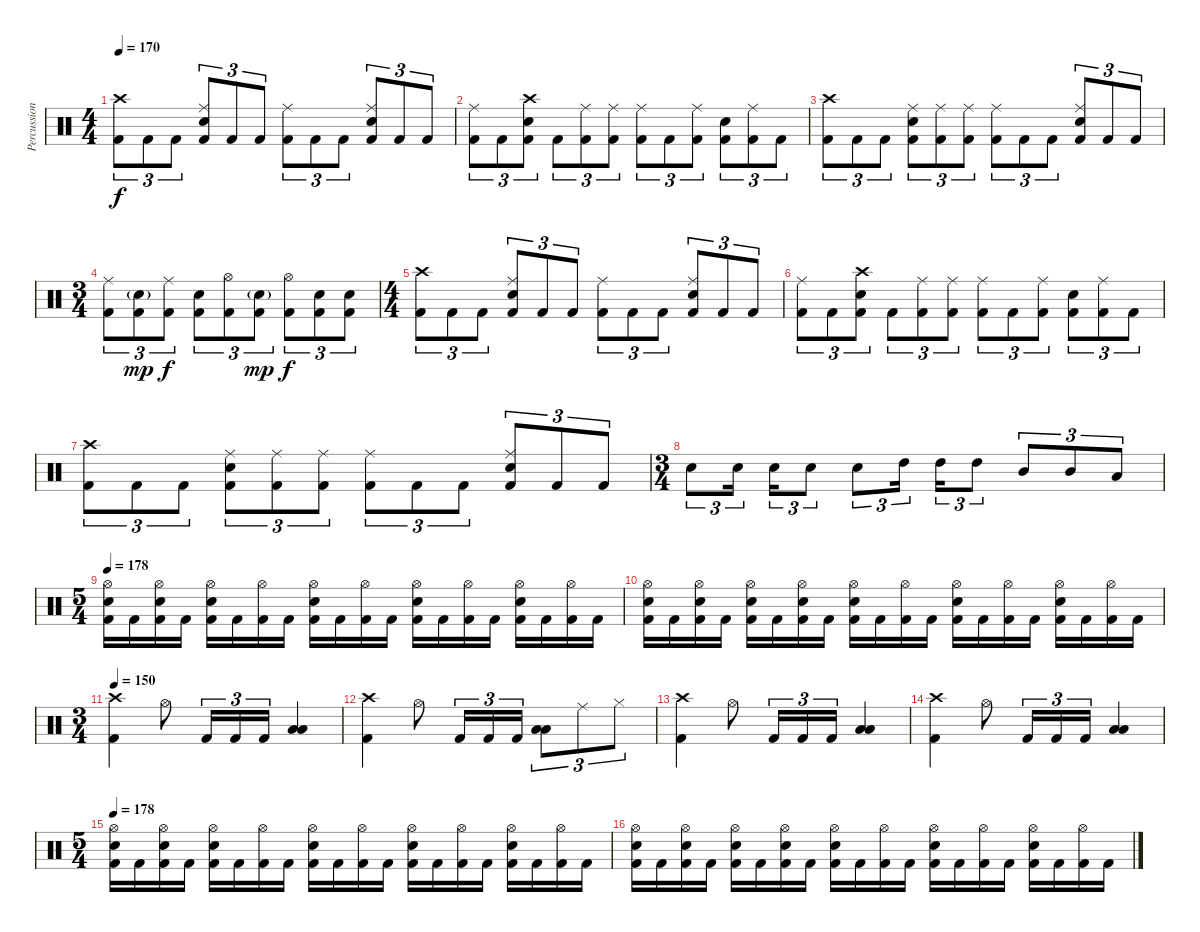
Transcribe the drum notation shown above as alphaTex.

\track ("Percussion" "Percussion") {instrument percussion}
\staff {score}
\articulation defaults
\ts (4 4)
\tempo 170
\clef neutral
\ks c
("Crash high (hit)" "Kick (hit) 2").8{tu (3 2) dy f} "Kick (hit) 2".8{tu (3 2)} "Kick (hit) 2".8{tu (3 2)} ("Ride (middle)" "Electric Snare (hit)" "Kick (hit) 2").8{tu (3 2)} "Kick (hit) 2".8{tu (3 2)} "Kick (hit) 2".8{tu (3 2)} ("Ride (middle)" "Kick (hit) 2").8{tu (3 2)} "Kick (hit) 2".8{tu (3 2)} "Kick (hit) 2".8{tu (3 2)} ("Ride (middle)" "Electric Snare (hit)" "Kick (hit) 2").8{tu (3 2)} "Kick (hit) 2".8{tu (3 2)} "Kick (hit) 2".8{tu (3 2)} |
("Ride (middle)" "Kick (hit) 2").8{tu (3 2)} "Kick (hit) 2".8{tu (3 2)} ("Crash high (hit)" "Electric Snare (hit)" "Kick (hit) 2").8{tu (3 2)} "Kick (hit) 2".8{tu (3 2)} ("Ride (middle)" "Kick (hit) 2").8{tu (3 2)} ("Ride (middle)" "Kick (hit) 2").8{tu (3 2)} ("Ride (middle)" "Kick (hit) 2").8{tu (3 2)} "Kick (hit) 2".8{tu (3 2)} ("Ride (middle)" "Kick (hit) 2").8{tu (3 2)} ("Electric Snare (hit)" "Kick (hit) 2").8{tu (3 2)} ("Ride (middle)" "Kick (hit) 2").8{tu (3 2)} "Kick (hit) 2".8{tu (3 2)} |
("Crash high (hit)" "Kick (hit) 2").8{tu (3 2)} "Kick (hit) 2".8{tu (3 2)} "Kick (hit) 2".8{tu (3 2)} ("Ride (middle)" "Electric Snare (hit)" "Kick (hit) 2").8{tu (3 2)} ("Ride (middle)" "Kick (hit) 2").8{tu (3 2)} ("Ride (middle)" "Kick (hit) 2").8{tu (3 2)} ("Ride (middle)" "Kick (hit) 2").8{tu (3 2)} "Kick (hit) 2".8{tu (3 2)} "Kick (hit) 2".8{tu (3 2)} ("Ride (middle)" "Electric Snare (hit)" "Kick (hit) 2").8{tu (3 2)} "Kick (hit) 2".8{tu (3 2)} "Kick (hit) 2".8{tu (3 2)} |
\ts (3 4)
("Ride (middle)" "Kick (hit) 2").8{tu (3 2)} ("Electric Snare (hit)"{g} "Kick (hit) 2").8{tu (3 2) dy mp} ("Ride (middle)" "Kick (hit) 2").8{tu (3 2) dy f} ("Electric Snare (hit)" "Kick (hit) 2").8{tu (3 2)} ("Hi-Hat (open)" "Kick (hit) 2").8{tu (3 2)} ("Electric Snare (hit)"{g} "Kick (hit) 2").8{tu (3 2) dy mp} ("Hi-Hat (open)" "Kick (hit) 2").8{tu (3 2) dy f} ("Electric Snare (hit)" "Kick (hit) 2").8{tu (3 2)} ("Electric Snare (hit)" "Kick (hit) 2").8{tu (3 2)} |
\ts (4 4)
("Crash high (hit)" "Kick (hit) 2").8{tu (3 2)} "Kick (hit) 2".8{tu (3 2)} "Kick (hit) 2".8{tu (3 2)} ("Ride (middle)" "Electric Snare (hit)" "Kick (hit) 2").8{tu (3 2)} "Kick (hit) 2".8{tu (3 2)} "Kick (hit) 2".8{tu (3 2)} ("Ride (middle)" "Kick (hit) 2").8{tu (3 2)} "Kick (hit) 2".8{tu (3 2)} "Kick (hit) 2".8{tu (3 2)} ("Ride (middle)" "Electric Snare (hit)" "Kick (hit) 2").8{tu (3 2)} "Kick (hit) 2".8{tu (3 2)} "Kick (hit) 2".8{tu (3 2)} |
("Ride (middle)" "Kick (hit) 2").8{tu (3 2)} "Kick (hit) 2".8{tu (3 2)} ("Crash high (hit)" "Electric Snare (hit)" "Kick (hit) 2").8{tu (3 2)} "Kick (hit) 2".8{tu (3 2)} ("Ride (middle)" "Kick (hit) 2").8{tu (3 2)} ("Ride (middle)" "Kick (hit) 2").8{tu (3 2)} ("Ride (middle)" "Kick (hit) 2").8{tu (3 2)} "Kick (hit) 2".8{tu (3 2)} ("Ride (middle)" "Kick (hit) 2").8{tu (3 2)} ("Electric Snare (hit)" "Kick (hit) 2").8{tu (3 2)} ("Ride (middle)" "Kick (hit) 2").8{tu (3 2)} "Kick (hit) 2".8{tu (3 2)} |
("Crash high (hit)" "Kick (hit) 2").8{tu (3 2)} "Kick (hit) 2".8{tu (3 2)} "Kick (hit) 2".8{tu (3 2)} ("Ride (middle)" "Electric Snare (hit)" "Kick (hit) 2").8{tu (3 2)} ("Ride (middle)" "Kick (hit) 2").8{tu (3 2)} ("Ride (middle)" "Kick (hit) 2").8{tu (3 2)} ("Ride (middle)" "Kick (hit) 2").8{tu (3 2)} "Kick (hit) 2".8{tu (3 2)} "Kick (hit) 2".8{tu (3 2)} ("Ride (middle)" "Electric Snare (hit)" "Kick (hit) 2").8{tu (3 2)} "Kick (hit) 2".8{tu (3 2)} "Kick (hit) 2".8{tu (3 2)} |
\ts (3 4)
"Electric Snare (hit)".8{tu (3 2)} "Electric Snare (hit)".16{tu (3 2)} "Electric Snare (hit)".16{tu (3 2)} "Electric Snare (hit)".8{tu (3 2)} "Electric Snare (hit)".8{tu (3 2)} "High Tom (hit)".16{tu (3 2)} "High Tom (hit)".16{tu (3 2)} "High Tom (hit)".8{tu (3 2)} "Mid Tom (hit)".8{tu (3 2)} "Mid Tom (hit)".8{tu (3 2)} "Low Tom (hit)".8{tu (3 2)} |
\ts (5 4)
\tempo 178
("Hi-Hat (open)" "Electric Snare (hit)" "Kick (hit) 2").16 "Kick (hit) 2".16 ("Hi-Hat (open)" "Electric Snare (hit)" "Kick (hit) 2").16 "Kick (hit) 2".16 ("Hi-Hat (open)" "Electric Snare (hit)" "Kick (hit) 2").16 "Kick (hit) 2".16 ("Hi-Hat (open)" "Kick (hit) 2").16 "Kick (hit) 2".16 ("Hi-Hat (open)" "Electric Snare (hit)" "Kick (hit) 2").16 "Kick (hit) 2".16 ("Hi-Hat (open)" "Kick (hit) 2").16 "Kick (hit) 2".16 ("Hi-Hat (open)" "Electric Snare (hit)" "Kick (hit) 2").16 "Kick (hit) 2".16 ("Hi-Hat (open)" "Kick (hit) 2").16 "Kick (hit) 2".16 ("Hi-Hat (open)" "Electric Snare (hit)" "Kick (hit) 2").16 "Kick (hit) 2".16 ("Hi-Hat (open)" "Kick (hit) 2").16 "Kick (hit) 2".16 |
("Hi-Hat (open)" "Electric Snare (hit)" "Kick (hit) 2").16 "Kick (hit) 2".16 ("Hi-Hat (open)" "Electric Snare (hit)" "Kick (hit) 2").16 "Kick (hit) 2".16 ("Hi-Hat (open)" "Electric Snare (hit)" "Kick (hit) 2").16 "Kick (hit) 2".16 ("Hi-Hat (open)" "Electric Snare (hit)" "Kick (hit) 2").16 "Kick (hit) 2".16 ("Hi-Hat (open)" "Electric Snare (hit)" "Kick (hit) 2").16 "Kick (hit) 2".16 ("Hi-Hat (open)" "Kick (hit) 2").16 "Kick (hit) 2".16 ("Hi-Hat (open)" "Electric Snare (hit)" "Kick (hit) 2").16 "Kick (hit) 2".16 ("Hi-Hat (open)" "Kick (hit) 2").16 "Kick (hit) 2".16 ("Hi-Hat (open)" "Electric Snare (hit)" "Kick (hit) 2").16 "Kick (hit) 2".16 ("Hi-Hat (open)" "Kick (hit) 2").16 "Kick (hit) 2".16 |
\ts (3 4)
\tempo 150
("Crash high (hit)" "Kick (hit) 2").4 "Hi-Hat (open)".8 "Kick (hit) 2".16{tu (3 2)} "Kick (hit) 2".16{tu (3 2)} "Kick (hit) 2".16{tu (3 2)} ("Low Tom (hit)" "Low Floor Tom (hit)").4 |
("Crash high (hit)" "Kick (hit) 2").4 "Hi-Hat (open)".8 "Kick (hit) 2".16{tu (3 2)} "Kick (hit) 2".16{tu (3 2)} "Kick (hit) 2".16{tu (3 2)} ("Low Tom (hit)" "Low Floor Tom (hit)").8{tu (3 2)} "Ride (middle)".8{tu (3 2)} "Hi-Hat (closed)".8{tu (3 2)} |
("Crash high (hit)" "Kick (hit) 2").4 "Hi-Hat (open)".8 "Kick (hit) 2".16{tu (3 2)} "Kick (hit) 2".16{tu (3 2)} "Kick (hit) 2".16{tu (3 2)} ("Low Tom (hit)" "Low Floor Tom (hit)").4 |
("Crash high (hit)" "Kick (hit) 2").4 "Hi-Hat (open)".8 "Kick (hit) 2".16{tu (3 2)} "Kick (hit) 2".16{tu (3 2)} "Kick (hit) 2".16{tu (3 2)} ("Low Tom (hit)" "Low Floor Tom (hit)").4 |
\ts (5 4)
\tempo 178
("Hi-Hat (open)" "Electric Snare (hit)" "Kick (hit) 2").16 "Kick (hit) 2".16 ("Hi-Hat (open)" "Electric Snare (hit)" "Kick (hit) 2").16 "Kick (hit) 2".16 ("Hi-Hat (open)" "Electric Snare (hit)" "Kick (hit) 2").16 "Kick (hit) 2".16 ("Hi-Hat (open)" "Kick (hit) 2").16 "Kick (hit) 2".16 ("Hi-Hat (open)" "Electric Snare (hit)" "Kick (hit) 2").16 "Kick (hit) 2".16 ("Hi-Hat (open)" "Kick (hit) 2").16 "Kick (hit) 2".16 ("Hi-Hat (open)" "Electric Snare (hit)" "Kick (hit) 2").16 "Kick (hit) 2".16 ("Hi-Hat (open)" "Kick (hit) 2").16 "Kick (hit) 2".16 ("Hi-Hat (open)" "Electric Snare (hit)" "Kick (hit) 2").16 "Kick (hit) 2".16 ("Hi-Hat (open)" "Kick (hit) 2").16 "Kick (hit) 2".16 |
("Hi-Hat (open)" "Electric Snare (hit)" "Kick (hit) 2").16 "Kick (hit) 2".16 ("Hi-Hat (open)" "Electric Snare (hit)" "Kick (hit) 2").16 "Kick (hit) 2".16 ("Hi-Hat (open)" "Electric Snare (hit)" "Kick (hit) 2").16 "Kick (hit) 2".16 ("Hi-Hat (open)" "Electric Snare (hit)" "Kick (hit) 2").16 "Kick (hit) 2".16 ("Hi-Hat (open)" "Electric Snare (hit)" "Kick (hit) 2").16 "Kick (hit) 2".16 ("Hi-Hat (open)" "Kick (hit) 2").16 "Kick (hit) 2".16 ("Hi-Hat (open)" "Electric Snare (hit)" "Kick (hit) 2").16 "Kick (hit) 2".16 ("Hi-Hat (open)" "Kick (hit) 2").16 "Kick (hit) 2".16 ("Hi-Hat (open)" "Electric Snare (hit)" "Kick (hit) 2").16 "Kick (hit) 2".16 ("Hi-Hat (open)" "Kick (hit) 2").16 "Kick (hit) 2".16
